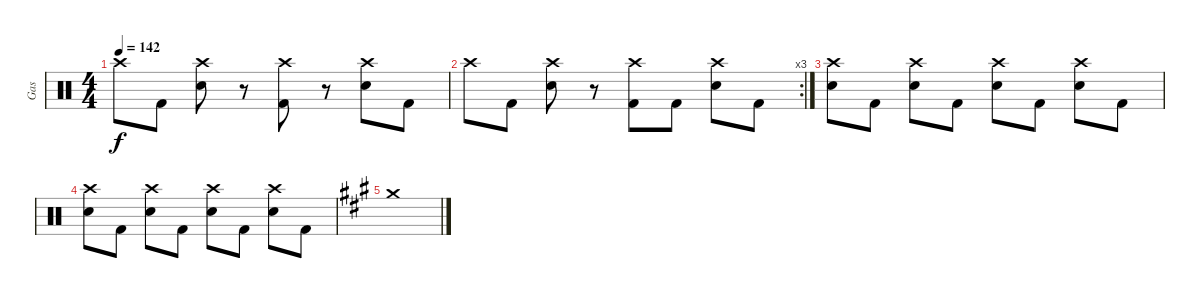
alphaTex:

\track ("Gas" "Gas") {instrument percussion}
\staff {score}
\articulation defaults
\ts (4 4)
\tempo 142
\clef neutral
\ks c "Crash high (hit)".8{dy f} "Kick (hit) 2".8
("Crash high (hit)" "Electric Snare (hit)").8 r.8 ("Crash high (hit)" "Kick (hit) 2").8 r.8 ("Crash high (hit)" "Electric Snare (hit)").8 "Kick (hit) 2".8 |
\rc 3 "Crash high (hit)".8 "Kick (hit) 2".8
("Crash high (hit)" "Electric Snare (hit)").8 r.8 ("Crash high (hit)" "Kick (hit) 2").8 "Kick (hit) 2".8 ("Crash high (hit)" "Electric Snare (hit)").8 "Kick (hit) 2".8 |
("Crash high (hit)" "Electric Snare (hit)").8 "Kick (hit) 2".8 ("Crash high (hit)" "Electric Snare (hit)").8 "Kick (hit) 2".8 ("Crash high (hit)" "Electric Snare (hit)").8 "Kick (hit) 2".8 ("Crash high (hit)" "Electric Snare (hit)").8 "Kick (hit) 2".8 |
("Crash high (hit)" "Electric Snare (hit)").8 "Kick (hit) 2".8 ("Crash high (hit)" "Electric Snare (hit)").8 "Kick (hit) 2".8 ("Crash high (hit)" "Electric Snare (hit)").8 "Kick (hit) 2".8 ("Crash high (hit)" "Electric Snare (hit)").8 "Kick (hit) 2".8 |
\ks a "Crash medium (hit)".1
